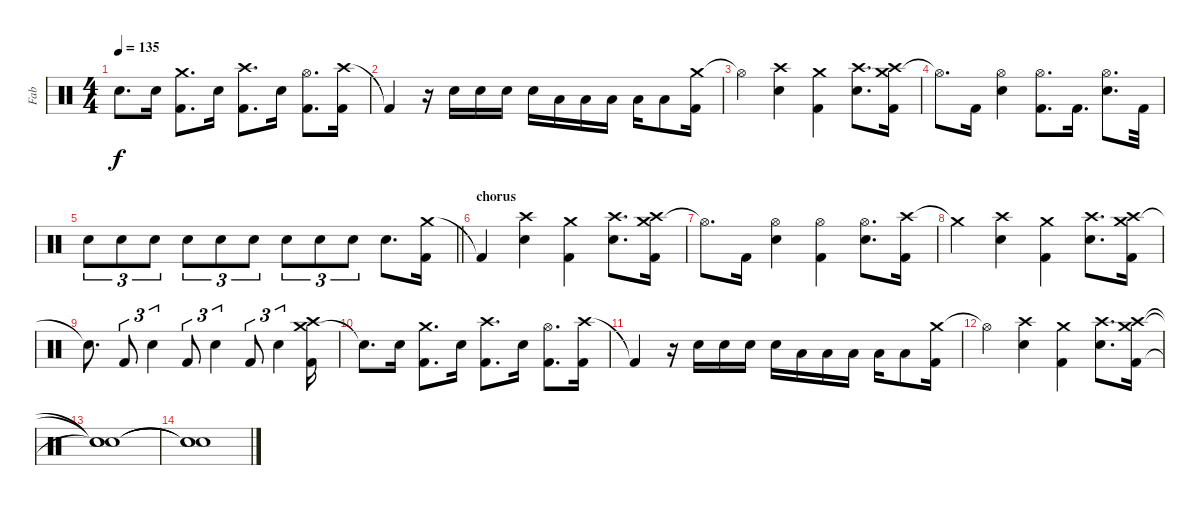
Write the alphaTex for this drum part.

\track ("Fab" "Fab") {instrument percussion}
\staff {score}
\articulation defaults
\ts (4 4)
\tempo 135
\clef neutral
\ks c "Snare (hit) 2"{t}.8{d dy f} "Snare (hit) 2".16
("Crash medium (hit)" "Kick (hit) 2").8{d} "Snare (hit) 2".16 ("Crash high (hit)" "Kick (hit) 2").8{d} "Snare (hit) 2".16 ("Hi-Hat (open)" "Kick (hit) 2").8{d} ("Crash high (hit)" "Kick (hit) 2").16 |
"Kick (hit) 2"{t}.4 r.16 "Snare (hit) 2".16 "Snare (hit) 2".16 "Snare (hit) 2".16 "Snare (hit) 2".16 "Low Tom (hit)".16 "Low Tom (hit)".16 "Low Tom (hit)".16 "Low Floor Tom (hit)".16 "Low Floor Tom (hit)".8 ("Crash medium (hit)" "Kick (hit) 2").16 |
"Hi-Hat (open)"{t}.4 ("Crash high (hit)" "Snare (hit) 2").4 ("Crash medium (hit)" "Kick (hit) 2").4 ("Crash high (hit)" "Snare (hit) 2").8{d} ("Crash medium (hit)" "Crash high (hit)" "Kick (hit) 2").16 |
"Hi-Hat (open)"{t}.8{d} "Kick (hit) 2".16 ("Hi-Hat (open)" "Snare (hit) 2").4 ("Hi-Hat (open)" "Kick (hit) 2").8{d} "Kick (hit) 2".16{d} ("Hi-Hat (open)" "Snare (hit) 2").8{d} "Kick (hit) 2".32 |
\barLineRight lightlight "Snare (hit) 2".8{tu (3 2)} "Snare (hit) 2".8{tu (3 2)} "Snare (hit) 2".8{tu (3 2)} "Snare (hit) 2".8{tu (3 2)} "Snare (hit) 2".8{tu (3 2)} "Snare (hit) 2".8{tu (3 2)} "Snare (hit) 2".8{tu (3 2)} "Snare (hit) 2".8{tu (3 2)} "Snare (hit) 2".8{tu (3 2)} "Snare (hit) 2".8{d}
("Crash medium (hit)" "Kick (hit) 2").16 |
\section ("" "chorus")
"Kick (hit) 2"{t}.4 ("Crash high (hit)" "Snare (hit) 2").4 ("Crash medium (hit)" "Kick (hit) 2").4 ("Crash high (hit)" "Snare (hit) 2").8{d} ("Crash medium (hit)" "Crash high (hit)" "Kick (hit) 2").16 |
"Hi-Hat (open)"{t}.8{d} "Kick (hit) 2".16 ("Hi-Hat (open)" "Snare (hit) 2").4 ("Hi-Hat (open)" "Kick (hit) 2").4 ("Hi-Hat (open)" "Snare (hit) 2").8{d} ("Crash high (hit)" "Kick (hit) 2").16 |
"Crash medium (hit)"{t}.4 ("Crash high (hit)" "Snare (hit) 2").4 ("Crash medium (hit)" "Kick (hit) 2").4 ("Crash high (hit)" "Snare (hit) 2").8{d} ("Crash medium (hit)" "Crash high (hit)" "Kick (hit) 2").16 |
"Snare (hit)"{t}.8{d} "Kick (hit) 2".8{tu (3 2)} "Snare (hit) 2".4{tu (3 2)} "Kick (hit) 2".8{tu (3 2)} "Snare (hit) 2".4{tu (3 2)} "Kick (hit) 2".8{tu (3 2)} "Snare (hit) 2".4{tu (3 2)} ("Crash medium (hit)" "Crash high (hit)" "Kick (hit) 2").16 |
"Snare (hit) 2"{t}.8{d} "Snare (hit) 2".16 ("Crash medium (hit)" "Kick (hit) 2").8{d} "Snare (hit) 2".16 ("Crash high (hit)" "Kick (hit) 2").8{d} "Snare (hit) 2".16 ("Hi-Hat (open)" "Kick (hit) 2").8{d} ("Crash high (hit)" "Kick (hit) 2").16 |
"Kick (hit) 2"{t}.4 r.16 "Snare (hit) 2".16 "Snare (hit) 2".16 "Snare (hit) 2".16 "Snare (hit) 2".16 "Low Tom (hit)".16 "Low Tom (hit)".16 "Low Tom (hit)".16 "Low Floor Tom (hit)".16 "Low Floor Tom (hit)".8 ("Crash medium (hit)" "Kick (hit) 2").16 |
"Hi-Hat (open)"{t}.4 ("Crash high (hit)" "Snare (hit) 2").4 ("Crash medium (hit)" "Kick (hit) 2").4 ("Crash high (hit)" "Snare (hit) 2").8{d} ("Crash medium (hit)" "Crash high (hit)" "Kick (hit) 2").16 |
("Snare (hit)"{t} "Snare (hit)"{t} "Snare (hit)"{t}).1 |
("Snare (hit)"{t} "Snare (hit)"{t} "Snare (hit)"{t}).1
